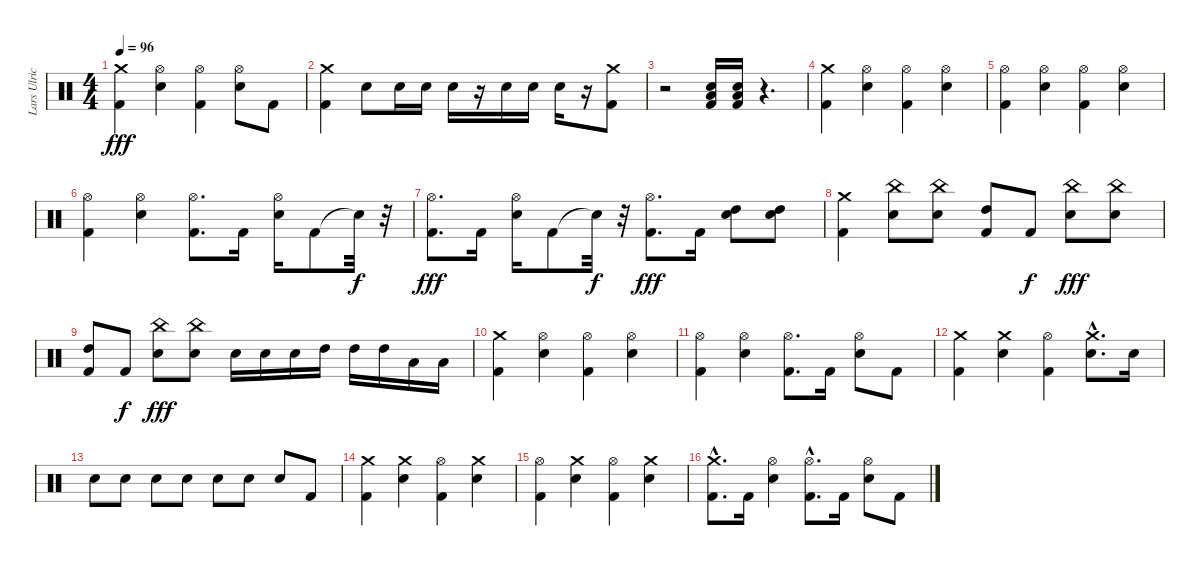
\track ("Lars Ulrich" "Lars Ulric") {instrument percussion}
\staff {score}
\articulation defaults
\ts (4 4)
\tempo 96
\clef neutral
\ks c
("Kick (hit) 2" "Crash medium (hit)").4{dy fff} ("Hi-Hat (open)" "Snare (hit) 2").4 ("Hi-Hat (open)" "Kick (hit) 2").4 ("Hi-Hat (open)" "Snare (hit) 2").8 "Kick (hit) 2".8 |
("Kick (hit) 2" "Crash medium (hit)").4 "Snare (hit) 2".8 "Snare (hit) 2".16 "Snare (hit) 2".16 "Snare (hit) 2".16 r.16 "Snare (hit) 2".16 "Snare (hit) 2".16 "Snare (hit) 2".16 r.16 ("Crash medium (hit)" "Kick (hit) 2").8 |
r.2 ("Snare (hit) 2" "Kick (hit) 2" "Low Floor Tom (hit)").16 ("Snare (hit) 2" "Kick (hit) 2" "Low Floor Tom (hit)").16 r.4{d} |
("Kick (hit) 2" "Crash medium (hit)").4 ("Hi-Hat (open)" "Snare (hit) 2").4 ("Hi-Hat (open)" "Kick (hit) 2").4 ("Hi-Hat (open)" "Snare (hit) 2").4 |
("Hi-Hat (open)" "Kick (hit) 2").4 ("Hi-Hat (open)" "Snare (hit) 2").4 ("Hi-Hat (open)" "Kick (hit) 2").4 ("Hi-Hat (open)" "Snare (hit) 2").4 |
("Hi-Hat (open)" "Kick (hit) 2").4 ("Hi-Hat (open)" "Snare (hit) 2").4 ("Hi-Hat (open)" "Kick (hit) 2").8{d} "Kick (hit) 2".16 ("Hi-Hat (open)" "Snare (hit) 2").16 "Kick (hit) 2".8 "Snare (hit)"{t}.32{dy f} r.32 |
("Hi-Hat (open)" "Kick (hit) 2").8{d dy fff} "Kick (hit) 2".16 ("Hi-Hat (open)" "Snare (hit) 2").16 "Kick (hit) 2".8 "Snare (hit)"{t}.32{dy f} r.32 ("Hi-Hat (open)" "Kick (hit) 2").8{d dy fff} "Kick (hit) 2".16 ("High Tom (hit)" "Snare (hit) 2").8 ("High Tom (hit)" "Snare (hit) 2").8 |
("Kick (hit) 2" "Crash medium (hit)").4 ("Snare (hit) 2" "China (hit)").8 ("Snare (hit) 2" "China (hit)").8 ("High Tom (hit)" "Kick (hit) 2").8 "Kick (hit) 2".8{dy f} ("Snare (hit) 2" "China (hit)").8{dy fff} ("Snare (hit) 2" "China (hit)").8 |
("High Tom (hit)" "Kick (hit) 2").8 "Kick (hit) 2".8{dy f} ("Snare (hit) 2" "China (hit)").8{dy fff} ("Snare (hit) 2" "China (hit)").8 "Snare (hit) 2".16 "Snare (hit) 2".16 "Snare (hit) 2".16 "High Tom (hit)".16 "High Tom (hit)".16 "High Tom (hit)".16 "Low Tom (hit)".16 "Low Tom (hit)".16 |
("Kick (hit) 2" "Crash medium (hit)").4 ("Hi-Hat (open)" "Snare (hit) 2").4 ("Hi-Hat (open)" "Kick (hit) 2").4 ("Hi-Hat (open)" "Snare (hit) 2").4 |
("Kick (hit) 2" "Hi-Hat (open)").4 ("Hi-Hat (open)" "Snare (hit) 2").4 ("Hi-Hat (open)" "Kick (hit) 2").8{d} "Kick (hit) 2".16 ("Hi-Hat (open)" "Snare (hit) 2").8 "Kick (hit) 2".8 |
("Kick (hit) 2" "Crash medium (hit)").4 ("Snare (hit) 2" "Crash medium (hit)").4 ("Hi-Hat (open)" "Kick (hit) 2").4 ("Snare (hit) 2"{hac} "Crash medium (hit)").8{d} "Snare (hit) 2".16 |
"Snare (hit) 2".8 "Snare (hit) 2".8 "Snare (hit) 2".8 "Snare (hit) 2".8 "Snare (hit) 2".8 "Snare (hit) 2".8 "Snare (hit) 2".8 "Kick (hit) 2".8 |
("Kick (hit) 2" "Crash medium (hit)").4 ("Snare (hit) 2" "Crash medium (hit)").4 ("Hi-Hat (open)" "Kick (hit) 2").4 ("Snare (hit) 2" "Crash medium (hit)").4 |
("Hi-Hat (open)" "Kick (hit) 2").4 ("Snare (hit) 2" "Crash medium (hit)").4 ("Hi-Hat (open)" "Kick (hit) 2").4 ("Snare (hit) 2" "Crash medium (hit)").4 |
("Kick (hit) 2"{hac} "Crash medium (hit)").8{d} "Kick (hit) 2".16 ("Snare (hit) 2" "Hi-Hat (open)").4 ("Kick (hit) 2"{hac} "Hi-Hat (open)").8{d} "Kick (hit) 2".16 ("Snare (hit) 2" "Hi-Hat (open)").8 "Kick (hit) 2".8
